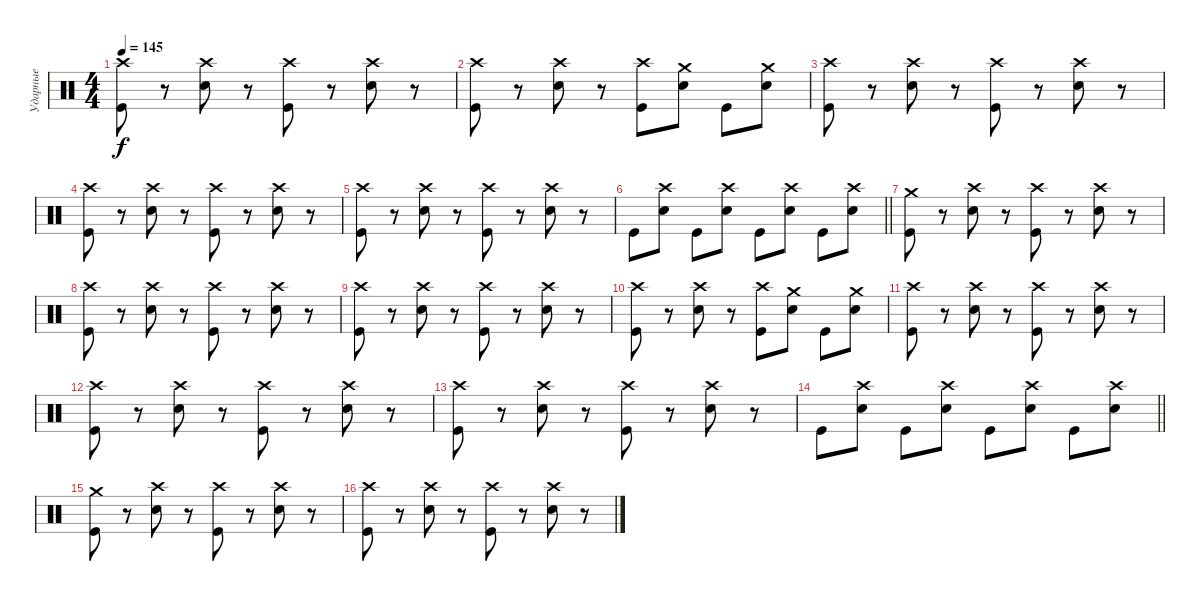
\track ("Ударные" "Ударные") {instrument percussion}
\staff {score}
\articulation defaults
\ts (4 4)
\tempo 145
\clef neutral
\ks c
("Crash high (hit)" "Kick (hit)").8{dy f} r.8 ("Crash high (hit)" "Electric Snare (hit)").8 r.8 ("Crash high (hit)" "Kick (hit)").8 r.8 ("Crash high (hit)" "Electric Snare (hit)").8 r.8 |
("Crash high (hit)" "Kick (hit)").8 r.8 ("Crash high (hit)" "Electric Snare (hit)").8 r.8 ("Crash high (hit)" "Kick (hit)").8 ("Crash medium (hit)" "Electric Snare (hit)").8 "Kick (hit)".8 ("Crash medium (hit)" "Electric Snare (hit)").8 |
("Crash high (hit)" "Kick (hit)").8 r.8 ("Crash high (hit)" "Electric Snare (hit)").8 r.8 ("Crash high (hit)" "Kick (hit)").8 r.8 ("Crash high (hit)" "Electric Snare (hit)").8 r.8 |
("Crash high (hit)" "Kick (hit)").8 r.8 ("Crash high (hit)" "Electric Snare (hit)").8 r.8 ("Crash high (hit)" "Kick (hit)").8 r.8 ("Crash high (hit)" "Electric Snare (hit)").8 r.8 |
("Crash high (hit)" "Kick (hit)").8 r.8 ("Crash high (hit)" "Electric Snare (hit)").8 r.8 ("Crash high (hit)" "Kick (hit)").8 r.8 ("Crash high (hit)" "Electric Snare (hit)").8 r.8 |
\barLineRight lightlight "Kick (hit)".8
("Crash high (hit)" "Electric Snare (hit)").8 "Kick (hit)".8 ("Crash high (hit)" "Electric Snare (hit)").8 "Kick (hit)".8 ("Crash high (hit)" "Electric Snare (hit)").8 "Kick (hit)".8 ("Crash high (hit)" "Electric Snare (hit)").8 |
\section ("" " ")
("Crash medium (hit)" "Kick (hit)").8 r.8 ("Crash high (hit)" "Electric Snare (hit)").8 r.8 ("Crash high (hit)" "Kick (hit)").8 r.8 ("Crash high (hit)" "Electric Snare (hit)").8 r.8 |
("Crash high (hit)" "Kick (hit)").8 r.8 ("Crash high (hit)" "Electric Snare (hit)").8 r.8 ("Crash high (hit)" "Kick (hit)").8 r.8 ("Crash high (hit)" "Electric Snare (hit)").8 r.8 |
("Crash high (hit)" "Kick (hit)").8 r.8 ("Crash high (hit)" "Electric Snare (hit)").8 r.8 ("Crash high (hit)" "Kick (hit)").8 r.8 ("Crash high (hit)" "Electric Snare (hit)").8 r.8 |
("Crash high (hit)" "Kick (hit)").8 r.8 ("Crash high (hit)" "Electric Snare (hit)").8 r.8 ("Crash high (hit)" "Kick (hit)").8 ("Crash medium (hit)" "Electric Snare (hit)").8 "Kick (hit)".8 ("Crash medium (hit)" "Electric Snare (hit)").8 |
("Crash high (hit)" "Kick (hit)").8 r.8 ("Crash high (hit)" "Electric Snare (hit)").8 r.8 ("Crash high (hit)" "Kick (hit)").8 r.8 ("Crash high (hit)" "Electric Snare (hit)").8 r.8 |
("Crash high (hit)" "Kick (hit)").8 r.8 ("Crash high (hit)" "Electric Snare (hit)").8 r.8 ("Crash high (hit)" "Kick (hit)").8 r.8 ("Crash high (hit)" "Electric Snare (hit)").8 r.8 |
("Crash high (hit)" "Kick (hit)").8 r.8 ("Crash high (hit)" "Electric Snare (hit)").8 r.8 ("Crash high (hit)" "Kick (hit)").8 r.8 ("Crash high (hit)" "Electric Snare (hit)").8 r.8 |
\barLineRight lightlight "Kick (hit)".8
("Crash high (hit)" "Electric Snare (hit)").8 "Kick (hit)".8 ("Crash high (hit)" "Electric Snare (hit)").8 "Kick (hit)".8 ("Crash high (hit)" "Electric Snare (hit)").8 "Kick (hit)".8 ("Crash high (hit)" "Electric Snare (hit)").8 |
\section ("" " ")
("Crash medium (hit)" "Kick (hit)").8 r.8 ("Crash high (hit)" "Electric Snare (hit)").8 r.8 ("Crash high (hit)" "Kick (hit)").8 r.8 ("Crash high (hit)" "Electric Snare (hit)").8 r.8 |
("Crash high (hit)" "Kick (hit)").8 r.8 ("Crash high (hit)" "Electric Snare (hit)").8 r.8 ("Crash high (hit)" "Kick (hit)").8 r.8 ("Crash high (hit)" "Electric Snare (hit)").8 r.8
